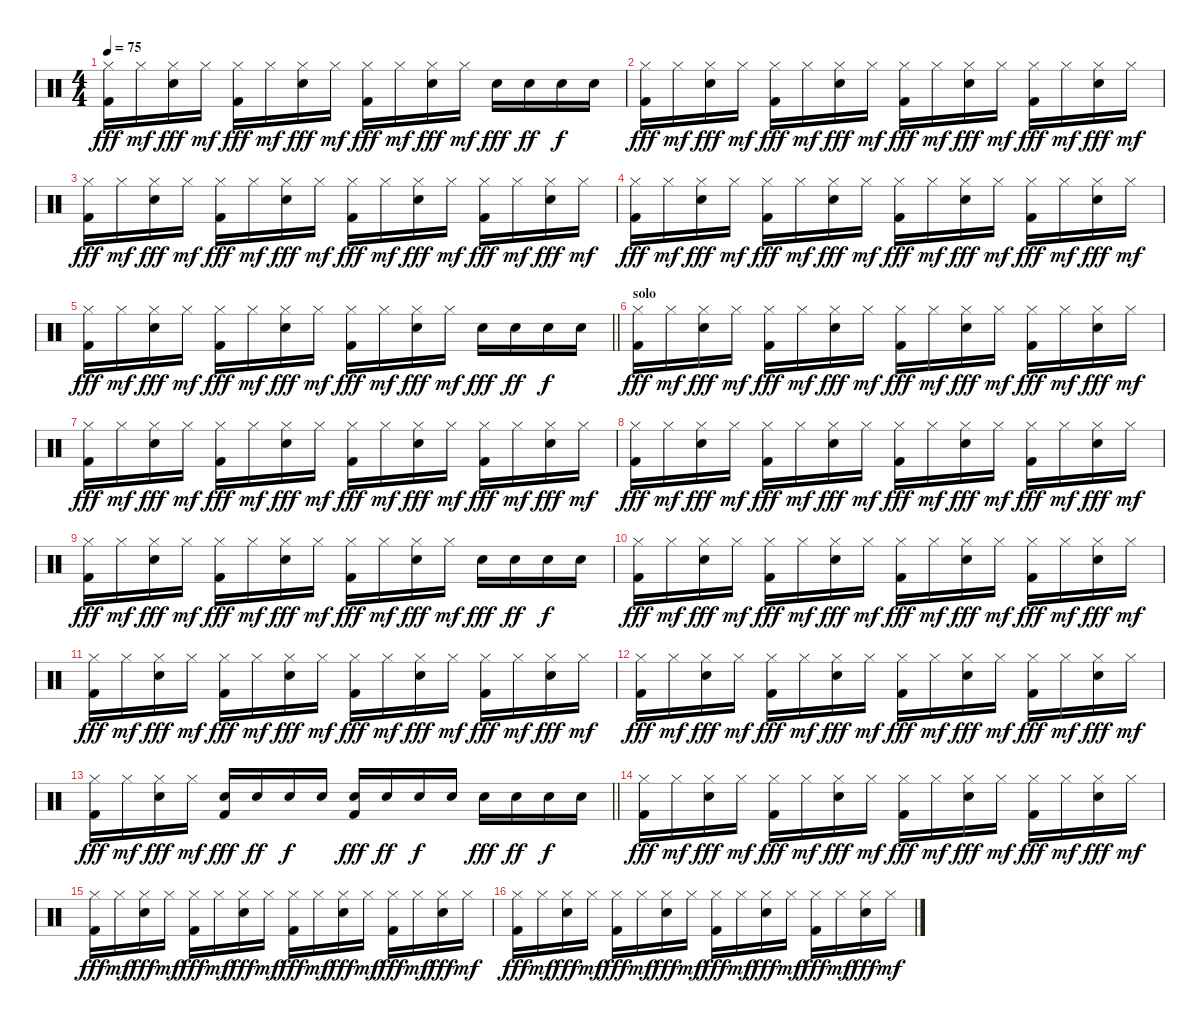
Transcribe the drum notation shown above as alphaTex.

\track "" {instrument percussion}
\staff {score}
\articulation defaults
\ts (4 4)
\tempo 75
\clef neutral
\ks c
("Hi-Hat (closed)" "Kick (hit) 2").16{dy fff} "Hi-Hat (closed)".16{dy mf} ("Hi-Hat (closed)" "Snare (hit) 2").16{dy fff} "Hi-Hat (closed)".16{dy mf} ("Hi-Hat (closed)" "Kick (hit) 2").16{dy fff} "Hi-Hat (closed)".16{dy mf} ("Hi-Hat (closed)" "Snare (hit) 2").16{dy fff} "Hi-Hat (closed)".16{dy mf} ("Hi-Hat (closed)" "Kick (hit) 2").16{dy fff} "Hi-Hat (closed)".16{dy mf} ("Hi-Hat (closed)" "Snare (hit) 2").16{dy fff} "Hi-Hat (closed)".16{dy mf} "Snare (hit) 2".16{dy fff} "Snare (hit) 2".16{dy ff} "Snare (hit) 2".16{dy f} "Snare (hit) 2".16 |
("Hi-Hat (closed)" "Kick (hit) 2").16{dy fff} "Hi-Hat (closed)".16{dy mf} ("Hi-Hat (closed)" "Snare (hit) 2").16{dy fff} "Hi-Hat (closed)".16{dy mf} ("Hi-Hat (closed)" "Kick (hit) 2").16{dy fff} "Hi-Hat (closed)".16{dy mf} ("Hi-Hat (closed)" "Snare (hit) 2").16{dy fff} "Hi-Hat (closed)".16{dy mf} ("Hi-Hat (closed)" "Kick (hit) 2").16{dy fff} "Hi-Hat (closed)".16{dy mf} ("Hi-Hat (closed)" "Snare (hit) 2").16{dy fff} "Hi-Hat (closed)".16{dy mf} ("Hi-Hat (closed)" "Kick (hit) 2").16{dy fff} "Hi-Hat (closed)".16{dy mf} ("Hi-Hat (closed)" "Snare (hit) 2").16{dy fff} "Hi-Hat (closed)".16{txt "" dy mf} |
("Hi-Hat (closed)" "Kick (hit) 2").16{dy fff} "Hi-Hat (closed)".16{dy mf} ("Hi-Hat (closed)" "Snare (hit) 2").16{dy fff} "Hi-Hat (closed)".16{dy mf} ("Hi-Hat (closed)" "Kick (hit) 2").16{dy fff} "Hi-Hat (closed)".16{dy mf} ("Hi-Hat (closed)" "Snare (hit) 2").16{dy fff} "Hi-Hat (closed)".16{dy mf} ("Hi-Hat (closed)" "Kick (hit) 2").16{dy fff} "Hi-Hat (closed)".16{dy mf} ("Hi-Hat (closed)" "Snare (hit) 2").16{dy fff} "Hi-Hat (closed)".16{dy mf} ("Hi-Hat (closed)" "Kick (hit) 2").16{dy fff} "Hi-Hat (closed)".16{dy mf} ("Hi-Hat (closed)" "Snare (hit) 2").16{dy fff} "Hi-Hat (closed)".16{dy mf} |
("Hi-Hat (closed)" "Kick (hit) 2").16{dy fff} "Hi-Hat (closed)".16{dy mf} ("Hi-Hat (closed)" "Snare (hit) 2").16{dy fff} "Hi-Hat (closed)".16{dy mf} ("Hi-Hat (closed)" "Kick (hit) 2").16{dy fff} "Hi-Hat (closed)".16{dy mf} ("Hi-Hat (closed)" "Snare (hit) 2").16{dy fff} "Hi-Hat (closed)".16{dy mf} ("Hi-Hat (closed)" "Kick (hit) 2").16{dy fff} "Hi-Hat (closed)".16{dy mf} ("Hi-Hat (closed)" "Snare (hit) 2").16{dy fff} "Hi-Hat (closed)".16{dy mf} ("Hi-Hat (closed)" "Kick (hit) 2").16{dy fff} "Hi-Hat (closed)".16{dy mf} ("Hi-Hat (closed)" "Snare (hit) 2").16{dy fff} "Hi-Hat (closed)".16{dy mf} |
\barLineRight lightlight
("Hi-Hat (closed)" "Kick (hit) 2").16{dy fff} "Hi-Hat (closed)".16{dy mf} ("Hi-Hat (closed)" "Snare (hit) 2").16{dy fff} "Hi-Hat (closed)".16{dy mf} ("Hi-Hat (closed)" "Kick (hit) 2").16{dy fff} "Hi-Hat (closed)".16{dy mf} ("Hi-Hat (closed)" "Snare (hit) 2").16{dy fff} "Hi-Hat (closed)".16{dy mf} ("Hi-Hat (closed)" "Kick (hit) 2").16{dy fff} "Hi-Hat (closed)".16{dy mf} ("Hi-Hat (closed)" "Snare (hit) 2").16{dy fff} "Hi-Hat (closed)".16{dy mf} "Snare (hit) 2".16{dy fff} "Snare (hit) 2".16{dy ff} "Snare (hit) 2".16{dy f} "Snare (hit) 2".16 |
\section ("" "solo")
("Hi-Hat (closed)" "Kick (hit) 2").16{dy fff} "Hi-Hat (closed)".16{dy mf} ("Hi-Hat (closed)" "Snare (hit) 2").16{dy fff} "Hi-Hat (closed)".16{dy mf} ("Hi-Hat (closed)" "Kick (hit) 2").16{dy fff} "Hi-Hat (closed)".16{dy mf} ("Hi-Hat (closed)" "Snare (hit) 2").16{dy fff} "Hi-Hat (closed)".16{dy mf} ("Hi-Hat (closed)" "Kick (hit) 2").16{dy fff} "Hi-Hat (closed)".16{dy mf} ("Hi-Hat (closed)" "Snare (hit) 2").16{dy fff} "Hi-Hat (closed)".16{dy mf} ("Hi-Hat (closed)" "Kick (hit) 2").16{dy fff} "Hi-Hat (closed)".16{dy mf} ("Hi-Hat (closed)" "Snare (hit) 2").16{dy fff} "Hi-Hat (closed)".16{dy mf} |
("Hi-Hat (closed)" "Kick (hit) 2").16{dy fff} "Hi-Hat (closed)".16{dy mf} ("Hi-Hat (closed)" "Snare (hit) 2").16{dy fff} "Hi-Hat (closed)".16{dy mf} ("Hi-Hat (closed)" "Kick (hit) 2").16{dy fff} "Hi-Hat (closed)".16{dy mf} ("Hi-Hat (closed)" "Snare (hit) 2").16{dy fff} "Hi-Hat (closed)".16{dy mf} ("Hi-Hat (closed)" "Kick (hit) 2").16{dy fff} "Hi-Hat (closed)".16{dy mf} ("Hi-Hat (closed)" "Snare (hit) 2").16{dy fff} "Hi-Hat (closed)".16{dy mf} ("Hi-Hat (closed)" "Kick (hit) 2").16{dy fff} "Hi-Hat (closed)".16{dy mf} ("Hi-Hat (closed)" "Snare (hit) 2").16{dy fff} "Hi-Hat (closed)".16{dy mf} |
("Hi-Hat (closed)" "Kick (hit) 2").16{dy fff} "Hi-Hat (closed)".16{dy mf} ("Hi-Hat (closed)" "Snare (hit) 2").16{dy fff} "Hi-Hat (closed)".16{dy mf} ("Hi-Hat (closed)" "Kick (hit) 2").16{dy fff} "Hi-Hat (closed)".16{dy mf} ("Hi-Hat (closed)" "Snare (hit) 2").16{dy fff} "Hi-Hat (closed)".16{dy mf} ("Hi-Hat (closed)" "Kick (hit) 2").16{dy fff} "Hi-Hat (closed)".16{dy mf} ("Hi-Hat (closed)" "Snare (hit) 2").16{dy fff} "Hi-Hat (closed)".16{dy mf} ("Hi-Hat (closed)" "Kick (hit) 2").16{dy fff} "Hi-Hat (closed)".16{dy mf} ("Hi-Hat (closed)" "Snare (hit) 2").16{dy fff} "Hi-Hat (closed)".16{dy mf} |
("Hi-Hat (closed)" "Kick (hit) 2").16{dy fff} "Hi-Hat (closed)".16{dy mf} ("Hi-Hat (closed)" "Snare (hit) 2").16{dy fff} "Hi-Hat (closed)".16{dy mf} ("Hi-Hat (closed)" "Kick (hit) 2").16{dy fff} "Hi-Hat (closed)".16{dy mf} ("Hi-Hat (closed)" "Snare (hit) 2").16{dy fff} "Hi-Hat (closed)".16{dy mf} ("Hi-Hat (closed)" "Kick (hit) 2").16{dy fff} "Hi-Hat (closed)".16{dy mf} ("Hi-Hat (closed)" "Snare (hit) 2").16{dy fff} "Hi-Hat (closed)".16{dy mf} "Snare (hit) 2".16{dy fff} "Snare (hit) 2".16{dy ff} "Snare (hit) 2".16{dy f} "Snare (hit) 2".16 |
("Hi-Hat (closed)" "Kick (hit) 2").16{dy fff} "Hi-Hat (closed)".16{dy mf} ("Hi-Hat (closed)" "Snare (hit) 2").16{dy fff} "Hi-Hat (closed)".16{dy mf} ("Hi-Hat (closed)" "Kick (hit) 2").16{dy fff} "Hi-Hat (closed)".16{dy mf} ("Hi-Hat (closed)" "Snare (hit) 2").16{dy fff} "Hi-Hat (closed)".16{dy mf} ("Hi-Hat (closed)" "Kick (hit) 2").16{dy fff} "Hi-Hat (closed)".16{dy mf} ("Hi-Hat (closed)" "Snare (hit) 2").16{dy fff} "Hi-Hat (closed)".16{dy mf} ("Hi-Hat (closed)" "Kick (hit) 2").16{dy fff} "Hi-Hat (closed)".16{dy mf} ("Hi-Hat (closed)" "Snare (hit) 2").16{dy fff} "Hi-Hat (closed)".16{dy mf} |
("Hi-Hat (closed)" "Kick (hit) 2").16{dy fff} "Hi-Hat (closed)".16{dy mf} ("Hi-Hat (closed)" "Snare (hit) 2").16{dy fff} "Hi-Hat (closed)".16{dy mf} ("Hi-Hat (closed)" "Kick (hit) 2").16{dy fff} "Hi-Hat (closed)".16{dy mf} ("Hi-Hat (closed)" "Snare (hit) 2").16{dy fff} "Hi-Hat (closed)".16{dy mf} ("Hi-Hat (closed)" "Kick (hit) 2").16{dy fff} "Hi-Hat (closed)".16{dy mf} ("Hi-Hat (closed)" "Snare (hit) 2").16{dy fff} "Hi-Hat (closed)".16{dy mf} ("Hi-Hat (closed)" "Kick (hit) 2").16{dy fff} "Hi-Hat (closed)".16{dy mf} ("Hi-Hat (closed)" "Snare (hit) 2").16{dy fff} "Hi-Hat (closed)".16{dy mf} |
("Hi-Hat (closed)" "Kick (hit) 2").16{dy fff} "Hi-Hat (closed)".16{dy mf} ("Hi-Hat (closed)" "Snare (hit) 2").16{dy fff} "Hi-Hat (closed)".16{dy mf} ("Hi-Hat (closed)" "Kick (hit) 2").16{dy fff} "Hi-Hat (closed)".16{dy mf} ("Hi-Hat (closed)" "Snare (hit) 2").16{dy fff} "Hi-Hat (closed)".16{dy mf} ("Hi-Hat (closed)" "Kick (hit) 2").16{dy fff} "Hi-Hat (closed)".16{dy mf} ("Hi-Hat (closed)" "Snare (hit) 2").16{dy fff} "Hi-Hat (closed)".16{dy mf} ("Hi-Hat (closed)" "Kick (hit) 2").16{dy fff} "Hi-Hat (closed)".16{dy mf} ("Hi-Hat (closed)" "Snare (hit) 2").16{dy fff} "Hi-Hat (closed)".16{dy mf} |
\barLineRight lightlight
("Hi-Hat (closed)" "Kick (hit) 2").16{dy fff} "Hi-Hat (closed)".16{dy mf} ("Hi-Hat (closed)" "Snare (hit) 2").16{dy fff} "Hi-Hat (closed)".16{dy mf} ("Snare (hit) 2" "Kick (hit) 2").16{dy fff} "Snare (hit) 2".16{dy ff} "Snare (hit) 2".16{dy f} "Snare (hit) 2".16 ("Snare (hit) 2" "Kick (hit) 2").16{dy fff} "Snare (hit) 2".16{dy ff} "Snare (hit) 2".16{dy f} "Snare (hit) 2".16 "Snare (hit) 2".16{dy fff} "Snare (hit) 2".16{dy ff} "Snare (hit) 2".16{dy f} "Snare (hit) 2".16 |
\section ("" "")
("Hi-Hat (closed)" "Kick (hit) 2").16{dy fff} "Hi-Hat (closed)".16{dy mf} ("Hi-Hat (closed)" "Snare (hit) 2").16{dy fff} "Hi-Hat (closed)".16{dy mf} ("Hi-Hat (closed)" "Kick (hit) 2").16{dy fff} "Hi-Hat (closed)".16{dy mf} ("Hi-Hat (closed)" "Snare (hit) 2").16{dy fff} "Hi-Hat (closed)".16{dy mf} ("Hi-Hat (closed)" "Kick (hit) 2").16{dy fff} "Hi-Hat (closed)".16{dy mf} ("Hi-Hat (closed)" "Snare (hit) 2").16{dy fff} "Hi-Hat (closed)".16{dy mf} ("Hi-Hat (closed)" "Kick (hit) 2").16{dy fff} "Hi-Hat (closed)".16{dy mf} ("Hi-Hat (closed)" "Snare (hit) 2").16{dy fff} "Hi-Hat (closed)".16{dy mf} |
("Hi-Hat (closed)" "Kick (hit) 2").16{dy fff} "Hi-Hat (closed)".16{dy mf} ("Hi-Hat (closed)" "Snare (hit) 2").16{dy fff} "Hi-Hat (closed)".16{dy mf} ("Hi-Hat (closed)" "Kick (hit) 2").16{dy fff} "Hi-Hat (closed)".16{dy mf} ("Hi-Hat (closed)" "Snare (hit) 2").16{dy fff} "Hi-Hat (closed)".16{dy mf} ("Hi-Hat (closed)" "Kick (hit) 2").16{dy fff} "Hi-Hat (closed)".16{dy mf} ("Hi-Hat (closed)" "Snare (hit) 2").16{dy fff} "Hi-Hat (closed)".16{dy mf} ("Hi-Hat (closed)" "Kick (hit) 2").16{dy fff} "Hi-Hat (closed)".16{dy mf} ("Hi-Hat (closed)" "Snare (hit) 2").16{dy fff} "Hi-Hat (closed)".16{dy mf} |
("Hi-Hat (closed)" "Kick (hit) 2").16{dy fff} "Hi-Hat (closed)".16{dy mf} ("Hi-Hat (closed)" "Snare (hit) 2").16{dy fff} "Hi-Hat (closed)".16{dy mf} ("Hi-Hat (closed)" "Kick (hit) 2").16{dy fff} "Hi-Hat (closed)".16{dy mf} ("Hi-Hat (closed)" "Snare (hit) 2").16{dy fff} "Hi-Hat (closed)".16{dy mf} ("Hi-Hat (closed)" "Kick (hit) 2").16{dy fff} "Hi-Hat (closed)".16{dy mf} ("Hi-Hat (closed)" "Snare (hit) 2").16{dy fff} "Hi-Hat (closed)".16{dy mf} ("Hi-Hat (closed)" "Kick (hit) 2").16{dy fff} "Hi-Hat (closed)".16{dy mf} ("Hi-Hat (closed)" "Snare (hit) 2").16{dy fff} "Hi-Hat (closed)".16{dy mf}
